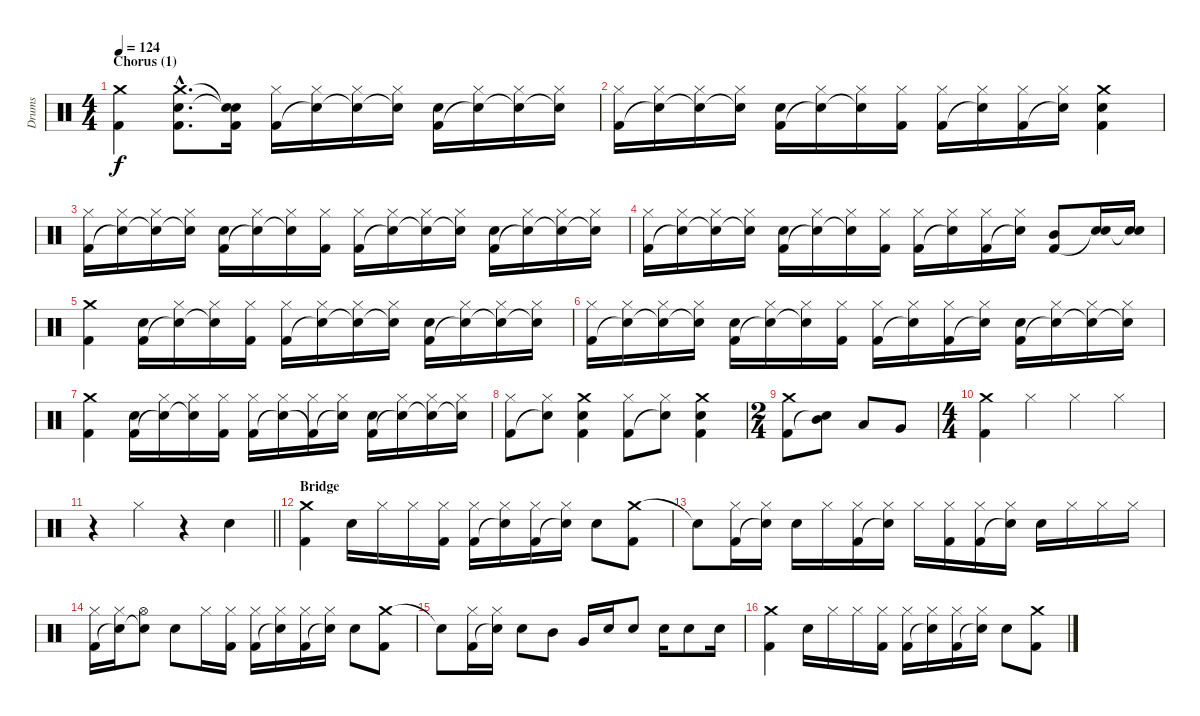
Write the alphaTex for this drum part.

\track ("Drums" "Drums") {instrument percussion}
\staff {score}
\articulation defaults
\ts (4 4)
\section ("" "Chorus (1)")
\tempo 124
\clef neutral
\ks aminor
("Crash medium (hit)" "Kick (hit) 2").4{dy f} ("Crash medium (hit)"{hac} "Electric Snare (hit)"{hac} "Kick (hit) 2"{hac}).8{d} ("Snare (hit)"{t} "Snare (hit)"{t} "Kick (hit) 2").16 ("Hi-Hat (closed)" "Kick (hit) 2").16 ("Hi-Hat (closed)" "Snare (hit)"{t}).16 ("Hi-Hat (closed)" "Snare (hit)"{t}).16 ("Hi-Hat (closed)" "Snare (hit)"{t}).16 ("Electric Snare (hit)" "Kick (hit) 2").16 ("Hi-Hat (closed)" "Snare (hit)"{t}).16 ("Hi-Hat (closed)" "Snare (hit)"{t}).16 ("Hi-Hat (closed)" "Snare (hit)"{t}).16 |
("Hi-Hat (closed)" "Kick (hit) 2").16 ("Hi-Hat (closed)" "Snare (hit)"{t}).16 ("Hi-Hat (closed)" "Snare (hit)"{t}).16 ("Hi-Hat (closed)" "Snare (hit)"{t}).16 ("Electric Snare (hit)" "Kick (hit) 2").16 ("Hi-Hat (closed)" "Snare (hit)"{t}).16 ("Hi-Hat (closed)" "Snare (hit)"{t}).16 ("Hi-Hat (closed)" "Kick (hit) 2").16 ("Hi-Hat (closed)" "Kick (hit) 2").16 ("Hi-Hat (closed)" "Snare (hit)"{t}).16 ("Hi-Hat (closed)" "Kick (hit) 2").16 ("Hi-Hat (closed)" "Snare (hit)"{t}).16 ("Crash medium (hit)" "Electric Snare (hit)" "Kick (hit) 2").4 |
("Hi-Hat (closed)" "Kick (hit) 2").16 ("Hi-Hat (closed)" "Snare (hit)"{t}).16 ("Hi-Hat (closed)" "Snare (hit)"{t}).16 ("Hi-Hat (closed)" "Snare (hit)"{t}).16 ("Electric Snare (hit)" "Kick (hit) 2").16 ("Hi-Hat (closed)" "Snare (hit)"{t}).16 ("Hi-Hat (closed)" "Snare (hit)"{t}).16 ("Hi-Hat (closed)" "Kick (hit) 2").16 ("Hi-Hat (closed)" "Kick (hit) 2").16 ("Hi-Hat (closed)" "Snare (hit)"{t}).16 ("Hi-Hat (closed)" "Snare (hit)"{t}).16 ("Hi-Hat (closed)" "Snare (hit)"{t}).16 ("Electric Snare (hit)" "Kick (hit) 2").16 ("Hi-Hat (closed)" "Snare (hit)"{t}).16 ("Hi-Hat (closed)" "Snare (hit)"{t}).16 ("Hi-Hat (closed)" "Snare (hit)"{t}).16 |
("Hi-Hat (closed)" "Kick (hit) 2").16 ("Hi-Hat (closed)" "Snare (hit)"{t}).16 ("Hi-Hat (closed)" "Snare (hit)"{t}).16 ("Hi-Hat (closed)" "Snare (hit)"{t}).16 ("Electric Snare (hit)" "Kick (hit) 2").16 ("Hi-Hat (closed)" "Snare (hit)"{t}).16 ("Hi-Hat (closed)" "Snare (hit)"{t}).16 ("Hi-Hat (closed)" "Kick (hit) 2").16 ("Hi-Hat (closed)" "Kick (hit) 2").16 ("Hi-Hat (closed)" "Snare (hit)"{t}).16 ("Hi-Hat (closed)" "Kick (hit) 2").16 ("Hi-Hat (closed)" "Snare (hit)"{t}).16 ("Mid Tom (hit)" "Kick (hit) 2").8 ("Electric Snare (hit)" "Snare (hit)"{t}).16 ("Electric Snare (hit)" "Snare (hit)"{t}).16 |
("Crash medium (hit)" "Kick (hit) 2").4 ("Electric Snare (hit)" "Kick (hit) 2").16 ("Hi-Hat (closed)" "Snare (hit)"{t}).16 ("Hi-Hat (closed)" "Snare (hit)"{t}).16 ("Hi-Hat (closed)" "Kick (hit) 2").16 ("Hi-Hat (closed)" "Kick (hit) 2").16 ("Hi-Hat (closed)" "Snare (hit)"{t}).16 ("Hi-Hat (closed)" "Snare (hit)"{t}).16 ("Hi-Hat (closed)" "Snare (hit)"{t}).16 ("Electric Snare (hit)" "Kick (hit) 2").16 ("Hi-Hat (closed)" "Snare (hit)"{t}).16 ("Hi-Hat (closed)" "Snare (hit)"{t}).16 ("Hi-Hat (closed)" "Snare (hit)"{t}).16 |
("Hi-Hat (closed)" "Kick (hit) 2").16 ("Hi-Hat (closed)" "Snare (hit)"{t}).16 ("Hi-Hat (closed)" "Snare (hit)"{t}).16 ("Hi-Hat (closed)" "Snare (hit)"{t}).16 ("Electric Snare (hit)" "Kick (hit) 2").16 ("Hi-Hat (closed)" "Snare (hit)"{t}).16 ("Hi-Hat (closed)" "Snare (hit)"{t}).16 ("Hi-Hat (closed)" "Kick (hit) 2").16 ("Hi-Hat (closed)" "Kick (hit) 2").16 ("Hi-Hat (closed)" "Snare (hit)"{t}).16 ("Hi-Hat (closed)" "Kick (hit) 2").16 ("Hi-Hat (closed)" "Snare (hit)"{t}).16 ("Electric Snare (hit)" "Kick (hit) 2").16 ("Hi-Hat (closed)" "Snare (hit)"{t}).16 ("Hi-Hat (closed)" "Snare (hit)"{t}).16 ("Hi-Hat (closed)" "Snare (hit)"{t}).16 |
("Crash medium (hit)" "Kick (hit) 2").4 ("Electric Snare (hit)" "Kick (hit) 2").16 ("Hi-Hat (closed)" "Snare (hit)"{t}).16 ("Hi-Hat (closed)" "Snare (hit)"{t}).16 ("Hi-Hat (closed)" "Kick (hit) 2").16 ("Hi-Hat (closed)" "Kick (hit) 2").16 ("Hi-Hat (closed)" "Snare (hit)"{t}).16 ("Hi-Hat (closed)" "Kick (hit) 2"{t}).16 ("Hi-Hat (closed)" "Snare (hit)"{t}).16 ("Electric Snare (hit)" "Kick (hit) 2").16 ("Hi-Hat (closed)" "Snare (hit)"{t}).16 ("Hi-Hat (closed)" "Snare (hit)"{t}).16 ("Hi-Hat (closed)" "Snare (hit)"{t}).16 |
("Hi-Hat (closed)" "Kick (hit) 2").8 ("Hi-Hat (closed)" "Snare (hit)"{t}).8 ("Crash medium (hit)" "Electric Snare (hit)" "Kick (hit) 2").4 ("Hi-Hat (closed)" "Kick (hit) 2").8 ("Hi-Hat (closed)" "Snare (hit)"{t}).8 ("Crash medium (hit)" "Electric Snare (hit)" "Kick (hit) 2").4 |
\ts (2 4)
("Crash medium (hit)" "Kick (hit) 2").8 ("Mid Tom (hit)" "Snare (hit)"{t}).8 "Low Tom (hit)".8 "Very Low Tom (hit)".8 |
\ts (4 4)
("Crash medium (hit)" "Kick (hit) 2").4 "Hi-Hat (closed)".4 "Hi-Hat (closed)".4 "Hi-Hat (closed)".4 |
\barLineRight lightlight
r.4 "Hi-Hat (closed)".4 r.4 "Electric Snare (hit)".4 |
\section ("" "Bridge")
("Crash medium (hit)" "Kick (hit) 2").4 "Electric Snare (hit)".16 "Hi-Hat (closed)".16 "Hi-Hat (closed)".16 ("Hi-Hat (closed)" "Kick (hit) 2").16 ("Hi-Hat (closed)" "Kick (hit) 2").16 ("Hi-Hat (closed)" "Snare (hit)"{t}).16 ("Hi-Hat (closed)" "Kick (hit) 2").16 ("Hi-Hat (closed)" "Snare (hit)"{t}).16 "Electric Snare (hit)".8 ("Crash medium (hit)" "Kick (hit) 2").8 |
"Snare (hit)"{t}.8 ("Hi-Hat (closed)" "Kick (hit) 2").16 ("Hi-Hat (closed)" "Snare (hit)"{t}).16 "Electric Snare (hit)".16 "Hi-Hat (closed)".16 ("Hi-Hat (closed)" "Kick (hit) 2").16 ("Hi-Hat (closed)" "Snare (hit)"{t}).16 "Hi-Hat (closed)".16 ("Hi-Hat (closed)" "Kick (hit) 2").16 ("Hi-Hat (closed)" "Kick (hit) 2").16 ("Hi-Hat (closed)" "Snare (hit)"{t}).16 "Electric Snare (hit)".16 "Hi-Hat (closed)".16 "Hi-Hat (closed)".16 "Hi-Hat (closed)".16 |
("Hi-Hat (closed)" "Kick (hit) 2").16 ("Hi-Hat (closed)" "Snare (hit)"{t}).16 ("Hi-Hat (open)" "Snare (hit)"{t}).8 "Electric Snare (hit)".8 "Hi-Hat (closed)".16 ("Hi-Hat (closed)" "Kick (hit) 2").16 ("Hi-Hat (closed)" "Kick (hit) 2").16 ("Hi-Hat (closed)" "Snare (hit)"{t}).16 ("Hi-Hat (closed)" "Kick (hit) 2").16 ("Hi-Hat (closed)" "Snare (hit)"{t}).16 "Electric Snare (hit)".8 ("Crash medium (hit)" "Kick (hit) 2").8 |
"Snare (hit)"{t}.8 ("Hi-Hat (closed)" "Kick (hit) 2").16 ("Hi-Hat (closed)" "Snare (hit)"{t}).16 "Electric Snare (hit)".8 "Mid Tom (hit)".8 "Very Low Tom (hit)".16 "Electric Snare (hit)".16 "Electric Snare (hit)".8 "Electric Snare (hit)".16 "Electric Snare (hit)".8 "Electric Snare (hit)".16 |
("Crash medium (hit)" "Kick (hit) 2").4 "Electric Snare (hit)".16 "Hi-Hat (closed)".16 "Hi-Hat (closed)".16 ("Hi-Hat (closed)" "Kick (hit) 2").16 ("Hi-Hat (closed)" "Kick (hit) 2").16 ("Hi-Hat (closed)" "Snare (hit)"{t}).16 ("Hi-Hat (closed)" "Kick (hit) 2").16 ("Hi-Hat (closed)" "Snare (hit)"{t}).16 "Electric Snare (hit)".8 ("Crash medium (hit)" "Kick (hit) 2").8
